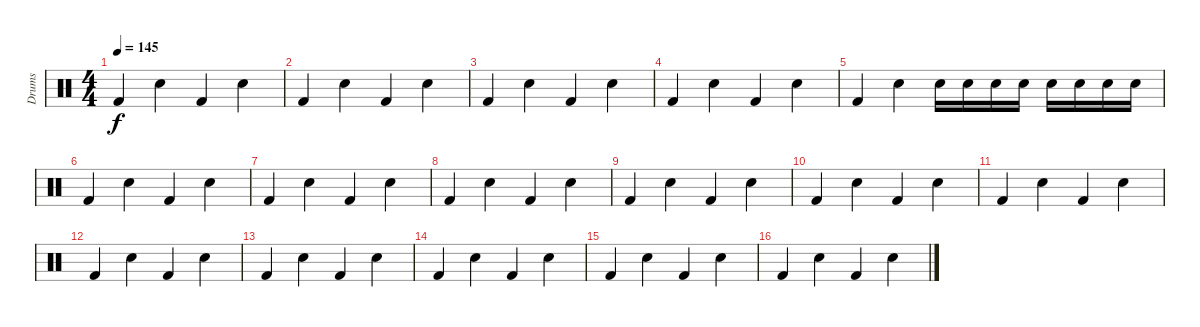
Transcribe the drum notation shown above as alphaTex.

\track ("Drums" "Drums") {instrument percussion}
\staff {score}
\articulation defaults
\ts (4 4)
\tempo 145
\clef neutral
\ks c "Kick (hit) 2".4{dy f} "Snare (hit) 2".4 "Kick (hit) 2".4 "Snare (hit) 2".4
|
"Kick (hit) 2".4 "Snare (hit) 2".4 "Kick (hit) 2".4 "Snare (hit) 2".4 |
"Kick (hit) 2".4 "Snare (hit) 2".4 "Kick (hit) 2".4 "Snare (hit) 2".4 |
"Kick (hit) 2".4 "Snare (hit) 2".4 "Kick (hit) 2".4 "Snare (hit) 2".4 |
"Kick (hit) 2".4 "Snare (hit) 2".4 "Snare (hit) 2".16 "Snare (hit) 2".16 "Snare (hit) 2".16 "Snare (hit) 2".16 "Snare (hit) 2".16 "Snare (hit) 2".16 "Snare (hit) 2".16 "Snare (hit) 2".16 |
"Kick (hit) 2".4 "Snare (hit) 2".4 "Kick (hit) 2".4 "Snare (hit) 2".4 |
"Kick (hit) 2".4 "Snare (hit) 2".4 "Kick (hit) 2".4 "Snare (hit) 2".4 |
"Kick (hit) 2".4 "Snare (hit) 2".4 "Kick (hit) 2".4 "Snare (hit) 2".4 |
"Kick (hit) 2".4 "Snare (hit) 2".4 "Kick (hit) 2".4 "Snare (hit) 2".4 |
"Kick (hit) 2".4 "Snare (hit) 2".4 "Kick (hit) 2".4 "Snare (hit) 2".4 |
"Kick (hit) 2".4 "Snare (hit) 2".4 "Kick (hit) 2".4 "Snare (hit) 2".4 |
"Kick (hit) 2".4 "Snare (hit) 2".4 "Kick (hit) 2".4 "Snare (hit) 2".4 |
"Kick (hit) 2".4 "Snare (hit) 2".4 "Kick (hit) 2".4 "Snare (hit) 2".4 |
"Kick (hit) 2".4 "Snare (hit) 2".4 "Kick (hit) 2".4 "Snare (hit) 2".4 |
"Kick (hit) 2".4 "Snare (hit) 2".4 "Kick (hit) 2".4 "Snare (hit) 2".4 |
"Kick (hit) 2".4 "Snare (hit) 2".4 "Kick (hit) 2".4 "Snare (hit) 2".4
